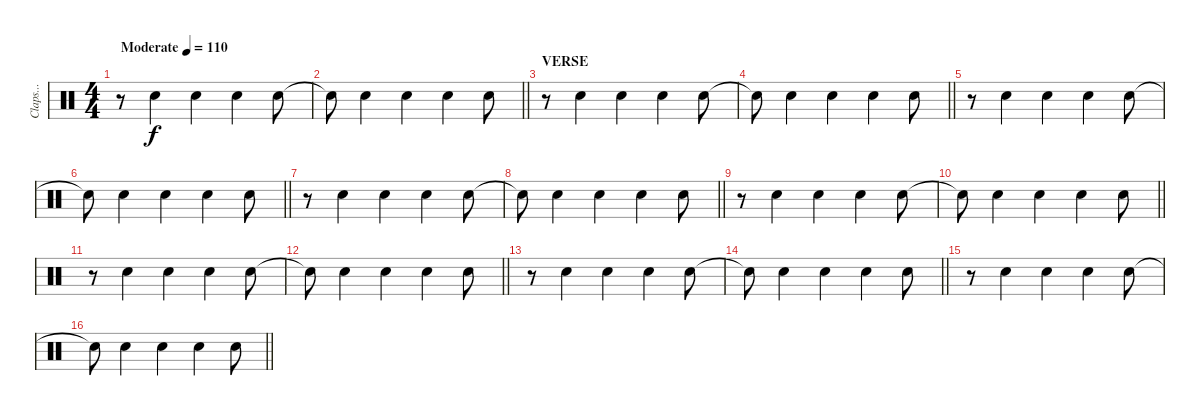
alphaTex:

\track ("Claps..." "Claps...") {instrument percussion}
\staff {score}
\articulation defaults
\ts (4 4)
\tempo (110 "Moderate")
\clef neutral
\ks c
r.8{dy f} "Hand Clap (hit)".4 "Hand Clap (hit)".4 "Hand Clap (hit)".4 "Hand Clap (hit)".8 |
\barLineRight lightlight "Hand Clap (hit)"{t}.8 "Hand Clap (hit)".4 "Hand Clap (hit)".4 "Hand Clap (hit)".4 "Hand Clap (hit)".8
|
\section ("" "VERSE")
r.8 "Hand Clap (hit)".4 "Hand Clap (hit)".4 "Hand Clap (hit)".4 "Hand Clap (hit)".8 |
\barLineRight lightlight "Hand Clap (hit)"{t}.8 "Hand Clap (hit)".4 "Hand Clap (hit)".4 "Hand Clap (hit)".4 "Hand Clap (hit)".8
|
r.8 "Hand Clap (hit)".4 "Hand Clap (hit)".4 "Hand Clap (hit)".4 "Hand Clap (hit)".8 |
\barLineRight lightlight "Hand Clap (hit)"{t}.8 "Hand Clap (hit)".4 "Hand Clap (hit)".4 "Hand Clap (hit)".4 "Hand Clap (hit)".8
|
r.8 "Hand Clap (hit)".4 "Hand Clap (hit)".4 "Hand Clap (hit)".4 "Hand Clap (hit)".8 |
\barLineRight lightlight "Hand Clap (hit)"{t}.8 "Hand Clap (hit)".4 "Hand Clap (hit)".4 "Hand Clap (hit)".4 "Hand Clap (hit)".8
|
r.8 "Hand Clap (hit)".4 "Hand Clap (hit)".4 "Hand Clap (hit)".4 "Hand Clap (hit)".8 |
\barLineRight lightlight "Hand Clap (hit)"{t}.8 "Hand Clap (hit)".4 "Hand Clap (hit)".4 "Hand Clap (hit)".4 "Hand Clap (hit)".8
|
\section ("" "")
r.8 "Hand Clap (hit)".4 "Hand Clap (hit)".4 "Hand Clap (hit)".4 "Hand Clap (hit)".8 |
\barLineRight lightlight "Hand Clap (hit)"{t}.8 "Hand Clap (hit)".4 "Hand Clap (hit)".4 "Hand Clap (hit)".4 "Hand Clap (hit)".8
|
r.8 "Hand Clap (hit)".4 "Hand Clap (hit)".4 "Hand Clap (hit)".4 "Hand Clap (hit)".8 |
\barLineRight lightlight "Hand Clap (hit)"{t}.8 "Hand Clap (hit)".4 "Hand Clap (hit)".4 "Hand Clap (hit)".4 "Hand Clap (hit)".8
|
r.8 "Hand Clap (hit)".4 "Hand Clap (hit)".4 "Hand Clap (hit)".4 "Hand Clap (hit)".8 |
\barLineRight lightlight "Hand Clap (hit)"{t}.8 "Hand Clap (hit)".4 "Hand Clap (hit)".4 "Hand Clap (hit)".4 "Hand Clap (hit)".8
